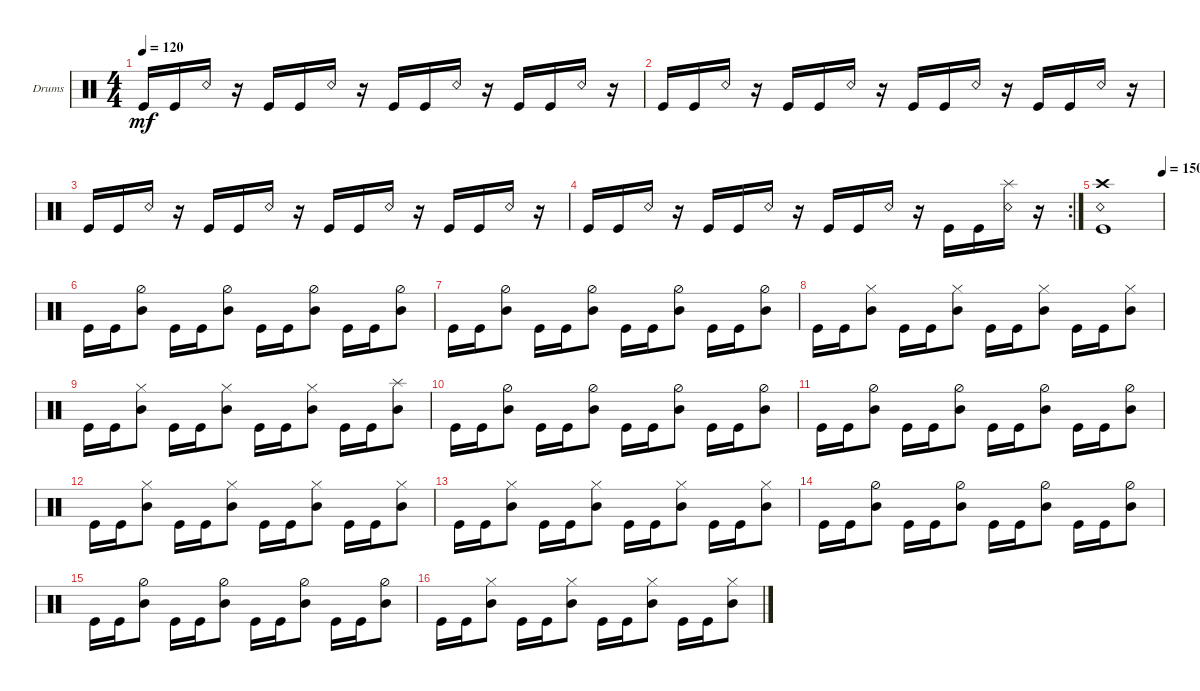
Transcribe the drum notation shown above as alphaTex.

\defaultSystemsLayout 4
\bracketExtendMode groupsimilarinstruments
\firstSystemTrackNameOrientation horizontal
\otherSystemsTrackNameOrientation horizontal
\track ("Drumkit" "Drums") {instrument percussion}
\staff {score}
\articulation defaults
\ts (4 4)
\tempo 120
\clef neutral
\ks c "Kick (hit)".16{dy mf} "Kick (hit)".16 "Snare (rim shot)".16
r.16 "Kick (hit)".16 "Kick (hit)".16 "Snare (rim shot)".16 r.16 "Kick (hit)".16 "Kick (hit)".16 "Snare (rim shot)".16 r.16 "Kick (hit)".16 "Kick (hit)".16 "Snare (rim shot)".16 r.16 |
"Kick (hit)".16 "Kick (hit)".16 "Snare (rim shot)".16 r.16 "Kick (hit)".16 "Kick (hit)".16 "Snare (rim shot)".16 r.16 "Kick (hit)".16 "Kick (hit)".16 "Snare (rim shot)".16 r.16 "Kick (hit)".16 "Kick (hit)".16 "Snare (rim shot)".16 r.16 |
"Kick (hit)".16 "Kick (hit)".16 "Snare (rim shot)".16 r.16 "Kick (hit)".16 "Kick (hit)".16 "Snare (rim shot)".16 r.16 "Kick (hit)".16 "Kick (hit)".16 "Snare (rim shot)".16 r.16 "Kick (hit)".16 "Kick (hit)".16 "Snare (rim shot)".16 r.16 |
\rc 2 "Kick (hit)".16 "Kick (hit)".16 "Snare (rim shot)".16
r.16 "Kick (hit)".16 "Kick (hit)".16 "Snare (rim shot)".16 r.16 "Kick (hit)".16 "Kick (hit)".16 "Snare (rim shot)".16 r.16 "Kick (hit)".16 "Kick (hit)".16 ("Snare (rim shot)" "Splash (hit)").16 r.16 |
\tempo (150.035 1)
("Snare (rim shot)" "Kick (hit)" "Crash high (hit)").1 |
"Kick (hit)".16 "Kick (hit)".16 ("Mid Tom (hit)" "Hi-Hat (half)").8 "Kick (hit)".16 "Kick (hit)".16 ("Mid Tom (hit)" "Hi-Hat (half)").8 "Kick (hit)".16 "Kick (hit)".16 ("Mid Tom (hit)" "Hi-Hat (half)").8 "Kick (hit)".16 "Kick (hit)".16 ("Mid Tom (hit)" "Hi-Hat (half)").8 |
"Kick (hit)".16 "Kick (hit)".16 ("Mid Tom (hit)" "Hi-Hat (half)").8 "Kick (hit)".16 "Kick (hit)".16 ("Mid Tom (hit)" "Hi-Hat (half)").8 "Kick (hit)".16 "Kick (hit)".16 ("Mid Tom (hit)" "Hi-Hat (half)").8 "Kick (hit)".16 "Kick (hit)".16 ("Mid Tom (hit)" "Hi-Hat (half)").8 |
"Kick (hit)".16 "Kick (hit)".16 ("Mid Tom (hit)" "Hi-Hat (closed)").8 "Kick (hit)".16 "Kick (hit)".16 ("Mid Tom (hit)" "Hi-Hat (closed)").8 "Kick (hit)".16 "Kick (hit)".16 ("Mid Tom (hit)" "Hi-Hat (closed)").8 "Kick (hit)".16 "Kick (hit)".16 ("Mid Tom (hit)" "Hi-Hat (closed)").8 |
"Kick (hit)".16 "Kick (hit)".16 ("Mid Tom (hit)" "Hi-Hat (closed)").8 "Kick (hit)".16 "Kick (hit)".16 ("Mid Tom (hit)" "Hi-Hat (closed)").8 "Kick (hit)".16 "Kick (hit)".16 ("Mid Tom (hit)" "Hi-Hat (closed)").8 "Kick (hit)".16 "Kick (hit)".16 ("Mid Tom (hit)" "Splash (hit)").8 |
"Kick (hit)".16 "Kick (hit)".16 ("Mid Tom (hit)" "Hi-Hat (half)").8 "Kick (hit)".16 "Kick (hit)".16 ("Mid Tom (hit)" "Hi-Hat (half)").8 "Kick (hit)".16 "Kick (hit)".16 ("Mid Tom (hit)" "Hi-Hat (half)").8 "Kick (hit)".16 "Kick (hit)".16 ("Mid Tom (hit)" "Hi-Hat (half)").8 |
"Kick (hit)".16 "Kick (hit)".16 ("Mid Tom (hit)" "Hi-Hat (half)").8 "Kick (hit)".16 "Kick (hit)".16 ("Mid Tom (hit)" "Hi-Hat (half)").8 "Kick (hit)".16 "Kick (hit)".16 ("Mid Tom (hit)" "Hi-Hat (half)").8 "Kick (hit)".16 "Kick (hit)".16 ("Mid Tom (hit)" "Hi-Hat (half)").8 |
"Kick (hit)".16 "Kick (hit)".16 ("Mid Tom (hit)" "Hi-Hat (closed)").8 "Kick (hit)".16 "Kick (hit)".16 ("Mid Tom (hit)" "Hi-Hat (closed)").8 "Kick (hit)".16 "Kick (hit)".16 ("Mid Tom (hit)" "Hi-Hat (closed)").8 "Kick (hit)".16 "Kick (hit)".16 ("Mid Tom (hit)" "Hi-Hat (closed)").8 |
"Kick (hit)".16 "Kick (hit)".16 ("Mid Tom (hit)" "Hi-Hat (closed)").8 "Kick (hit)".16 "Kick (hit)".16 ("Mid Tom (hit)" "Hi-Hat (closed)").8 "Kick (hit)".16 "Kick (hit)".16 ("Mid Tom (hit)" "Hi-Hat (closed)").8 "Kick (hit)".16 "Kick (hit)".16 ("Mid Tom (hit)" "Hi-Hat (closed)").8 |
"Kick (hit)".16 "Kick (hit)".16 ("Mid Tom (hit)" "Hi-Hat (half)").8 "Kick (hit)".16 "Kick (hit)".16 ("Mid Tom (hit)" "Hi-Hat (half)").8 "Kick (hit)".16 "Kick (hit)".16 ("Mid Tom (hit)" "Hi-Hat (half)").8 "Kick (hit)".16 "Kick (hit)".16 ("Mid Tom (hit)" "Hi-Hat (half)").8 |
"Kick (hit)".16 "Kick (hit)".16 ("Mid Tom (hit)" "Hi-Hat (half)").8 "Kick (hit)".16 "Kick (hit)".16 ("Mid Tom (hit)" "Hi-Hat (half)").8 "Kick (hit)".16 "Kick (hit)".16 ("Mid Tom (hit)" "Hi-Hat (half)").8 "Kick (hit)".16 "Kick (hit)".16 ("Mid Tom (hit)" "Hi-Hat (half)").8 |
"Kick (hit)".16 "Kick (hit)".16 ("Mid Tom (hit)" "Hi-Hat (closed)").8 "Kick (hit)".16 "Kick (hit)".16 ("Mid Tom (hit)" "Hi-Hat (closed)").8 "Kick (hit)".16 "Kick (hit)".16 ("Mid Tom (hit)" "Hi-Hat (closed)").8 "Kick (hit)".16 "Kick (hit)".16 ("Mid Tom (hit)" "Hi-Hat (closed)").8
